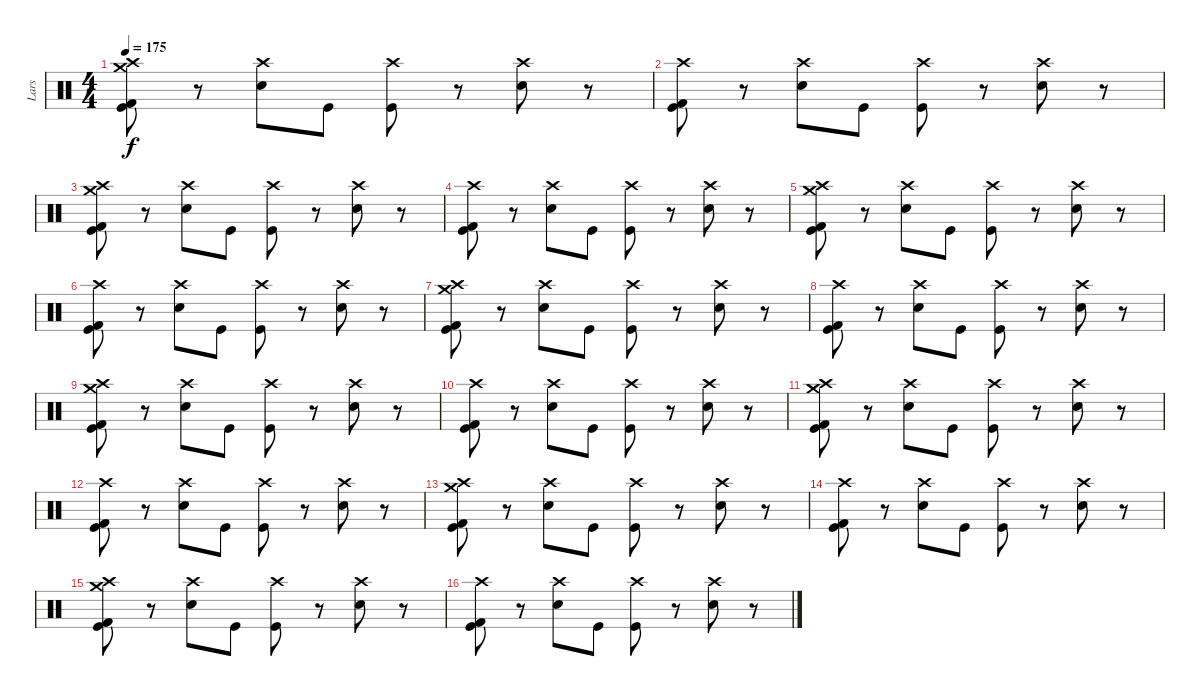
\track ("Lars" "Lars") {instrument percussion}
\staff {score}
\articulation defaults
\ts (4 4)
\tempo 175
\clef neutral
\ks c
("Crash high (hit)" "Crash medium (hit)" "Kick (hit) 2" "Kick (hit)").8{dy f} r.8 ("Crash high (hit)" "Snare (hit) 2").8 "Kick (hit)".8 ("Crash high (hit)" "Kick (hit)").8 r.8 ("Crash high (hit)" "Snare (hit) 2").8 r.8 |
("Crash high (hit)" "Kick (hit) 2" "Kick (hit)").8 r.8 ("Crash high (hit)" "Snare (hit) 2").8 "Kick (hit)".8 ("Crash high (hit)" "Kick (hit)").8 r.8 ("Crash high (hit)" "Snare (hit) 2").8 r.8 |
("Crash high (hit)" "Crash medium (hit)" "Kick (hit) 2" "Kick (hit)").8 r.8 ("Crash high (hit)" "Snare (hit) 2").8 "Kick (hit)".8 ("Crash high (hit)" "Kick (hit)").8 r.8 ("Crash high (hit)" "Snare (hit) 2").8 r.8 |
("Crash high (hit)" "Kick (hit) 2" "Kick (hit)").8 r.8 ("Crash high (hit)" "Snare (hit) 2").8 "Kick (hit)".8 ("Crash high (hit)" "Kick (hit)").8 r.8 ("Crash high (hit)" "Snare (hit) 2").8 r.8 |
("Crash high (hit)" "Crash medium (hit)" "Kick (hit) 2" "Kick (hit)").8 r.8 ("Crash high (hit)" "Snare (hit) 2").8 "Kick (hit)".8 ("Crash high (hit)" "Kick (hit)").8 r.8 ("Crash high (hit)" "Snare (hit) 2").8 r.8 |
("Crash high (hit)" "Kick (hit) 2" "Kick (hit)").8 r.8 ("Crash high (hit)" "Snare (hit) 2").8 "Kick (hit)".8 ("Crash high (hit)" "Kick (hit)").8 r.8 ("Crash high (hit)" "Snare (hit) 2").8 r.8 |
("Crash high (hit)" "Crash medium (hit)" "Kick (hit) 2" "Kick (hit)").8 r.8 ("Crash high (hit)" "Snare (hit) 2").8 "Kick (hit)".8 ("Crash high (hit)" "Kick (hit)").8 r.8 ("Crash high (hit)" "Snare (hit) 2").8 r.8 |
("Crash high (hit)" "Kick (hit) 2" "Kick (hit)").8 r.8 ("Crash high (hit)" "Snare (hit) 2").8 "Kick (hit)".8 ("Crash high (hit)" "Kick (hit)").8 r.8 ("Crash high (hit)" "Snare (hit) 2").8 r.8 |
("Crash high (hit)" "Crash medium (hit)" "Kick (hit) 2" "Kick (hit)").8 r.8 ("Crash high (hit)" "Snare (hit) 2").8 "Kick (hit)".8 ("Crash high (hit)" "Kick (hit)").8 r.8 ("Crash high (hit)" "Snare (hit) 2").8 r.8 |
("Crash high (hit)" "Kick (hit) 2" "Kick (hit)").8 r.8 ("Crash high (hit)" "Snare (hit) 2").8 "Kick (hit)".8 ("Crash high (hit)" "Kick (hit)").8 r.8 ("Crash high (hit)" "Snare (hit) 2").8 r.8 |
("Crash high (hit)" "Crash medium (hit)" "Kick (hit) 2" "Kick (hit)").8 r.8 ("Crash high (hit)" "Snare (hit) 2").8 "Kick (hit)".8 ("Crash high (hit)" "Kick (hit)").8 r.8 ("Crash high (hit)" "Snare (hit) 2").8 r.8 |
("Crash high (hit)" "Kick (hit) 2" "Kick (hit)").8 r.8 ("Crash high (hit)" "Snare (hit) 2").8 "Kick (hit)".8 ("Crash high (hit)" "Kick (hit)").8 r.8 ("Crash high (hit)" "Snare (hit) 2").8 r.8 |
("Crash high (hit)" "Crash medium (hit)" "Kick (hit) 2" "Kick (hit)").8 r.8 ("Crash high (hit)" "Snare (hit) 2").8 "Kick (hit)".8 ("Crash high (hit)" "Kick (hit)").8 r.8 ("Crash high (hit)" "Snare (hit) 2").8 r.8 |
("Crash high (hit)" "Kick (hit) 2" "Kick (hit)").8 r.8 ("Crash high (hit)" "Snare (hit) 2").8 "Kick (hit)".8 ("Crash high (hit)" "Kick (hit)").8 r.8 ("Crash high (hit)" "Snare (hit) 2").8 r.8 |
("Crash high (hit)" "Crash medium (hit)" "Kick (hit) 2" "Kick (hit)").8 r.8 ("Crash high (hit)" "Snare (hit) 2").8 "Kick (hit)".8 ("Crash high (hit)" "Kick (hit)").8 r.8 ("Crash high (hit)" "Snare (hit) 2").8 r.8 |
("Crash high (hit)" "Kick (hit) 2" "Kick (hit)").8 r.8 ("Crash high (hit)" "Snare (hit) 2").8 "Kick (hit)".8 ("Crash high (hit)" "Kick (hit)").8 r.8 ("Crash high (hit)" "Snare (hit) 2").8 r.8
